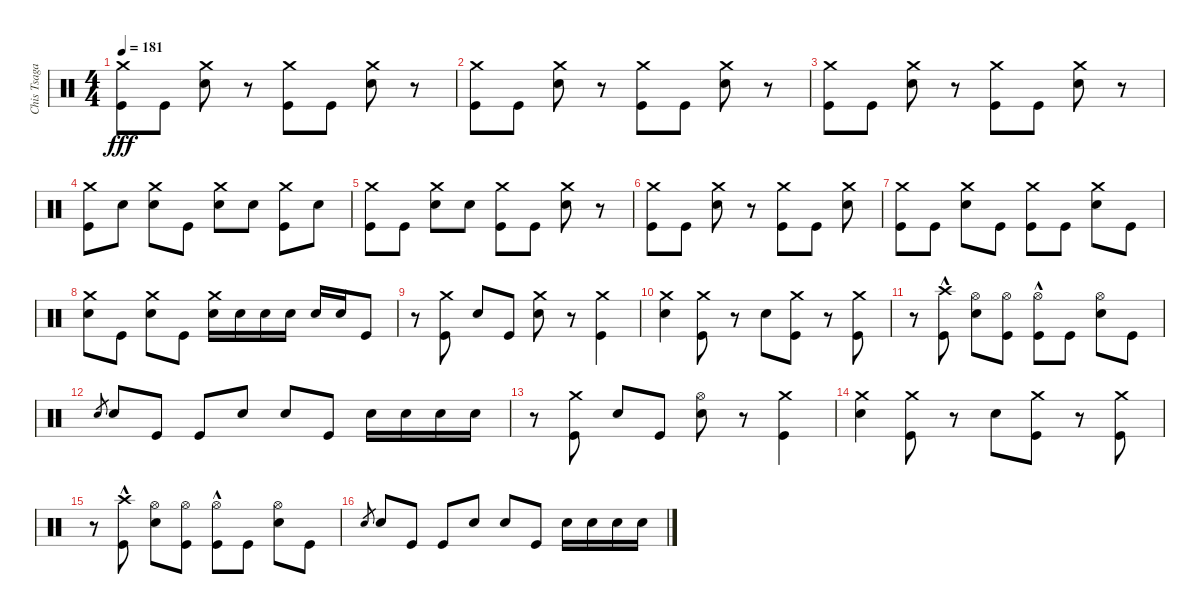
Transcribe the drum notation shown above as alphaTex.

\track ("Chis Tsagakis" "Chis Tsaga") {instrument percussion}
\staff {score}
\articulation defaults
\ts (4 4)
\tempo 181
\clef neutral
\ks c
("Crash medium (hit)" "Kick (hit)").8{dy fff} "Kick (hit)".8 ("Crash medium (hit)" "Electric Snare (hit)").8 r.8 ("Crash medium (hit)" "Kick (hit)").8 "Kick (hit)".8 ("Crash medium (hit)" "Electric Snare (hit)").8 r.8 |
("Crash medium (hit)" "Kick (hit)").8 "Kick (hit)".8 ("Crash medium (hit)" "Electric Snare (hit)").8 r.8 ("Crash medium (hit)" "Kick (hit)").8 "Kick (hit)".8 ("Crash medium (hit)" "Electric Snare (hit)").8 r.8 |
("Crash medium (hit)" "Kick (hit)").8 "Kick (hit)".8 ("Crash medium (hit)" "Electric Snare (hit)").8 r.8 ("Crash medium (hit)" "Kick (hit)").8 "Kick (hit)".8 ("Crash medium (hit)" "Electric Snare (hit)").8 r.8 |
("Crash medium (hit)" "Kick (hit)").8 "Electric Snare (hit)".8 ("Crash medium (hit)" "Electric Snare (hit)").8 "Kick (hit)".8 ("Crash medium (hit)" "Electric Snare (hit)").8 "Electric Snare (hit)".8 ("Crash medium (hit)" "Kick (hit)").8 "Electric Snare (hit)".8 |
("Crash medium (hit)" "Kick (hit)").8 "Kick (hit)".8 ("Crash medium (hit)" "Electric Snare (hit)").8 "Electric Snare (hit)".8 ("Crash medium (hit)" "Kick (hit)").8 "Kick (hit)".8 ("Crash medium (hit)" "Electric Snare (hit)").8 r.8 |
("Crash medium (hit)" "Kick (hit)").8 "Kick (hit)".8 ("Crash medium (hit)" "Electric Snare (hit)").8 r.8 ("Crash medium (hit)" "Kick (hit)").8 "Kick (hit)".8 ("Crash medium (hit)" "Electric Snare (hit)").8 |
("Crash medium (hit)" "Kick (hit)").8 "Kick (hit)".8 ("Crash medium (hit)" "Electric Snare (hit)").8 "Kick (hit)".8 ("Crash medium (hit)" "Kick (hit)").8 "Kick (hit)".8 ("Crash medium (hit)" "Electric Snare (hit)").8 "Kick (hit)".8 |
("Crash medium (hit)" "Electric Snare (hit)").8 "Kick (hit)".8 ("Crash medium (hit)" "Electric Snare (hit)").8 "Kick (hit)".8 ("Crash medium (hit)" "Electric Snare (hit)").16 "Electric Snare (hit)".16 "Electric Snare (hit)".16 "Electric Snare (hit)".16 "Electric Snare (hit)".16 "Electric Snare (hit)".16 "Kick (hit)".8 |
r.8 ("Crash medium (hit)" "Kick (hit)").8 "Electric Snare (hit)".8 "Kick (hit)".8 ("Crash medium (hit)" "Electric Snare (hit)").8 r.8 ("Crash medium (hit)" "Kick (hit)").4 |
("Crash medium (hit)" "Electric Snare (hit)").4 ("Crash medium (hit)" "Kick (hit)").8 r.8 "Electric Snare (hit)".8 ("Crash medium (hit)" "Kick (hit)").8 r.8 ("Crash medium (hit)" "Kick (hit)").8 |
r.8 ("Crash high (hit)"{hac} "Kick (hit)").8 ("Hi-Hat (open)" "Electric Snare (hit)").8 ("Hi-Hat (open)" "Kick (hit)").8 ("Hi-Hat (open)"{hac} "Kick (hit)").8 "Kick (hit)".8 ("Hi-Hat (open)" "Electric Snare (hit)").8 "Kick (hit)".8 |
"Electric Snare (hit)".8{gr} "Electric Snare (hit)".8 "Kick (hit)".8 "Kick (hit)".8 "Electric Snare (hit)".8 "Electric Snare (hit)".8 "Kick (hit)".8 "Electric Snare (hit)".16 "Electric Snare (hit)".16 "Electric Snare (hit)".16 "Electric Snare (hit)".16 |
r.8 ("Crash medium (hit)" "Kick (hit)").8 "Electric Snare (hit)".8 "Kick (hit)".8 ("Hi-Hat (open)" "Electric Snare (hit)").8 r.8 ("Crash medium (hit)" "Kick (hit)").4 |
("Crash medium (hit)" "Electric Snare (hit)").4 ("Crash medium (hit)" "Kick (hit)").8 r.8 "Electric Snare (hit)".8 ("Crash medium (hit)" "Kick (hit)").8 r.8 ("Crash medium (hit)" "Kick (hit)").8 |
r.8 ("Crash high (hit)"{hac} "Kick (hit)").8 ("Hi-Hat (open)" "Electric Snare (hit)").8 ("Hi-Hat (open)" "Kick (hit)").8 ("Hi-Hat (open)"{hac} "Kick (hit)").8 "Kick (hit)".8 ("Hi-Hat (open)" "Electric Snare (hit)").8 "Kick (hit)".8 |
"Electric Snare (hit)".8{gr} "Electric Snare (hit)".8 "Kick (hit)".8 "Kick (hit)".8 "Electric Snare (hit)".8 "Electric Snare (hit)".8 "Kick (hit)".8 "Electric Snare (hit)".16 "Electric Snare (hit)".16 "Electric Snare (hit)".16 "Electric Snare (hit)".16
